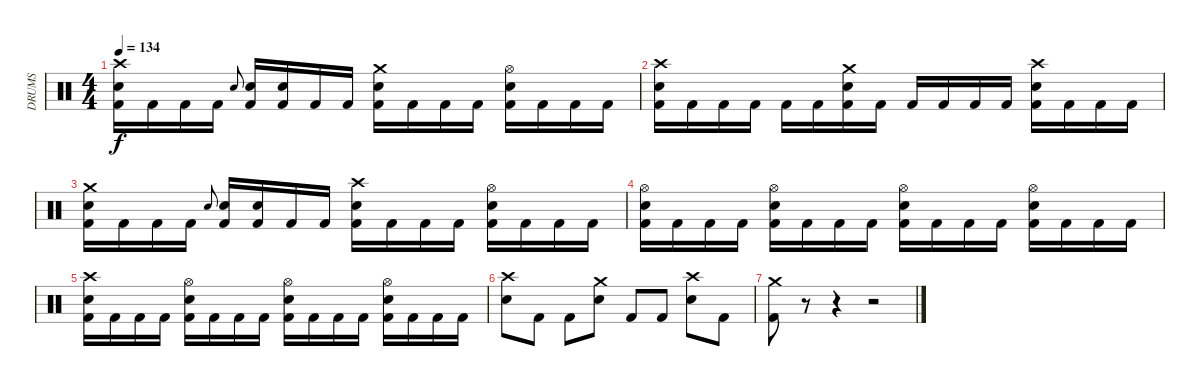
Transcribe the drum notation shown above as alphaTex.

\track ("DRUMS" "DRUMS") {instrument percussion}
\staff {score}
\articulation defaults
\ts (4 4)
\tempo 134
\clef neutral
\ks c
("Crash high (hit)" "Snare (hit) 2" "Kick (hit) 2").16{dy f} "Kick (hit) 2".16 "Kick (hit) 2".16 "Kick (hit) 2".16 "Snare (hit) 2".8{gr onbeat} ("Snare (hit) 2" "Kick (hit) 2").16 ("Snare (hit) 2" "Kick (hit) 2").16 "Kick (hit) 2".16 "Kick (hit) 2".16 ("Crash medium (hit)" "Snare (hit) 2" "Kick (hit) 2").16 "Kick (hit) 2".16 "Kick (hit) 2".16 "Kick (hit) 2".16 ("Hi-Hat (open)" "Snare (hit) 2" "Kick (hit) 2").16 "Kick (hit) 2".16 "Kick (hit) 2".16 "Kick (hit) 2".16 |
("Crash high (hit)" "Snare (hit) 2" "Kick (hit) 2").16 "Kick (hit) 2".16 "Kick (hit) 2".16 "Kick (hit) 2".16 "Kick (hit) 2".16 "Kick (hit) 2".16 ("Crash medium (hit)" "Snare (hit) 2" "Kick (hit) 2").16 "Kick (hit) 2".16 "Kick (hit) 2".16 "Kick (hit) 2".16 "Kick (hit) 2".16 "Kick (hit) 2".16 ("Crash high (hit)" "Snare (hit) 2" "Kick (hit) 2").16 "Kick (hit) 2".16 "Kick (hit) 2".16 "Kick (hit) 2".16 |
("Crash medium (hit)" "Snare (hit) 2" "Kick (hit) 2").16 "Kick (hit) 2".16 "Kick (hit) 2".16 "Kick (hit) 2".16 "Snare (hit) 2".8{gr onbeat} ("Snare (hit) 2" "Kick (hit) 2").16 ("Snare (hit) 2" "Kick (hit) 2").16 "Kick (hit) 2".16 "Kick (hit) 2".16 ("Crash high (hit)" "Snare (hit) 2" "Kick (hit) 2").16 "Kick (hit) 2".16 "Kick (hit) 2".16 "Kick (hit) 2".16 ("Hi-Hat (open)" "Snare (hit) 2" "Kick (hit) 2").16 "Kick (hit) 2".16 "Kick (hit) 2".16 "Kick (hit) 2".16 |
("Hi-Hat (open)" "Snare (hit) 2" "Kick (hit) 2").16 "Kick (hit) 2".16 "Kick (hit) 2".16 "Kick (hit) 2".16 ("Hi-Hat (open)" "Snare (hit) 2" "Kick (hit) 2").16 "Kick (hit) 2".16 "Kick (hit) 2".16 "Kick (hit) 2".16 ("Hi-Hat (open)" "Snare (hit) 2" "Kick (hit) 2").16 "Kick (hit) 2".16 "Kick (hit) 2".16 "Kick (hit) 2".16 ("Hi-Hat (open)" "Snare (hit) 2" "Kick (hit) 2").16 "Kick (hit) 2".16 "Kick (hit) 2".16 "Kick (hit) 2".16 |
("Crash high (hit)" "Snare (hit) 2" "Kick (hit) 2").16 "Kick (hit) 2".16 "Kick (hit) 2".16 "Kick (hit) 2".16 ("Hi-Hat (open)" "Snare (hit) 2" "Kick (hit) 2").16 "Kick (hit) 2".16 "Kick (hit) 2".16 "Kick (hit) 2".16 ("Hi-Hat (open)" "Snare (hit) 2" "Kick (hit) 2").16 "Kick (hit) 2".16 "Kick (hit) 2".16 "Kick (hit) 2".16 ("Hi-Hat (open)" "Snare (hit) 2" "Kick (hit) 2").16 "Kick (hit) 2".16 "Kick (hit) 2".16 "Kick (hit) 2".16 |
("Crash high (hit)" "Snare (hit) 2").8 "Kick (hit) 2".8 "Kick (hit) 2".8 ("Crash medium (hit)" "Snare (hit) 2").8 "Kick (hit) 2".8 "Kick (hit) 2".8 ("Crash high (hit)" "Snare (hit) 2").8 "Kick (hit) 2".8 |
("Crash medium (hit)" "Kick (hit) 2").8 r.8 r.4 r.2
